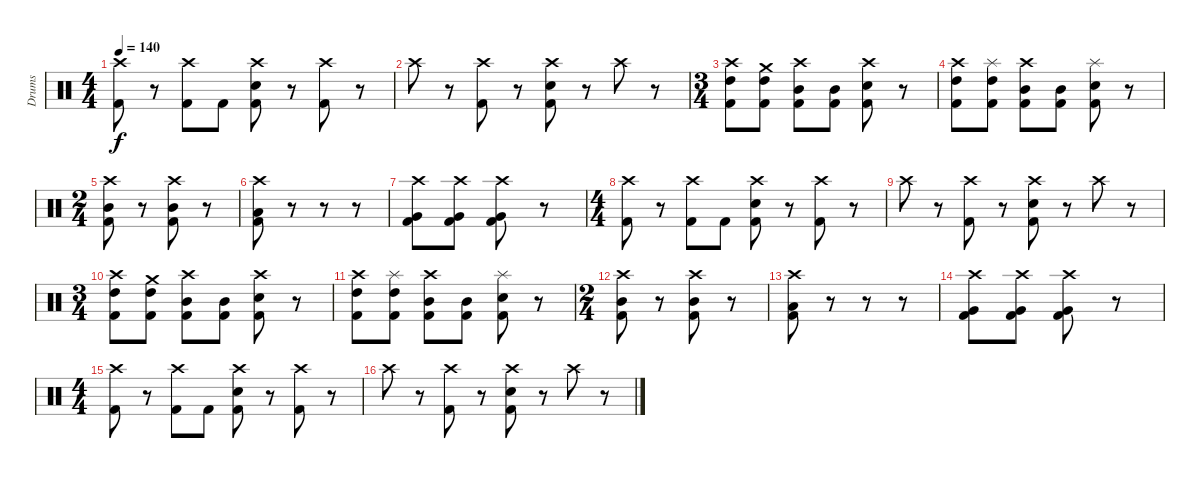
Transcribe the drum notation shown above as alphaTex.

\track ("Drums" "Drums") {instrument percussion}
\staff {score}
\articulation defaults
\ts (4 4)
\tempo 140
\clef neutral
\ks c
("Crash high (hit)" "Kick (hit) 2").8{dy f} r.8 ("Crash high (hit)" "Kick (hit) 2").8 "Kick (hit) 2".8 ("Crash high (hit)" "Snare (hit) 2" "Kick (hit) 2").8 r.8 ("Crash high (hit)" "Kick (hit) 2").8 r.8 |
"Crash high (hit)".8 r.8 ("Crash high (hit)" "Kick (hit) 2").8 r.8 ("Crash high (hit)" "Snare (hit) 2" "Kick (hit) 2").8 r.8 "Crash high (hit)".8 r.8 |
\ts (3 4)
("Crash high (hit)" "High Tom (hit)" "Kick (hit) 2").8 ("Crash medium (hit)" "High Tom (hit)" "Kick (hit) 2").8 ("Crash high (hit)" "Mid Tom (hit)" "Kick (hit) 2").8 ("Mid Tom (hit)" "Kick (hit) 2").8 ("Crash high (hit)" "Snare (hit) 2" "Kick (hit) 2").8 r.8 |
("Crash high (hit)" "High Tom (hit)" "Kick (hit) 2").8 ("Splash (hit)" "High Tom (hit)" "Kick (hit) 2").8 ("Crash high (hit)" "Mid Tom (hit)" "Kick (hit) 2").8 ("Mid Tom (hit)" "Kick (hit) 2").8 ("Splash (hit)" "Snare (hit) 2" "Kick (hit) 2").8 r.8 |
\ts (2 4)
("Crash high (hit)" "Mid Tom (hit)" "Kick (hit) 2").8 r.8 ("Crash high (hit)" "Mid Tom (hit)" "Kick (hit) 2").8 r.8 |
("Crash high (hit)" "Low Tom (hit)" "Kick (hit) 2").8 r.8 r.8 r.8 |
("Crash high (hit)" "Very Low Tom (hit)" "Kick (hit) 2").8 ("Crash high (hit)" "Very Low Tom (hit)" "Kick (hit) 2").8 ("Crash high (hit)" "Very Low Tom (hit)" "Kick (hit) 2").8 r.8 |
\ts (4 4)
("Crash high (hit)" "Kick (hit) 2").8 r.8 ("Crash high (hit)" "Kick (hit) 2").8 "Kick (hit) 2".8 ("Crash high (hit)" "Snare (hit) 2" "Kick (hit) 2").8 r.8 ("Crash high (hit)" "Kick (hit) 2").8 r.8 |
"Crash high (hit)".8 r.8 ("Crash high (hit)" "Kick (hit) 2").8 r.8 ("Crash high (hit)" "Snare (hit) 2" "Kick (hit) 2").8 r.8 "Crash high (hit)".8 r.8 |
\ts (3 4)
("Crash high (hit)" "High Tom (hit)" "Kick (hit) 2").8 ("Crash medium (hit)" "High Tom (hit)" "Kick (hit) 2").8 ("Crash high (hit)" "Mid Tom (hit)" "Kick (hit) 2").8 ("Mid Tom (hit)" "Kick (hit) 2").8 ("Crash high (hit)" "Snare (hit) 2" "Kick (hit) 2").8 r.8 |
("Crash high (hit)" "High Tom (hit)" "Kick (hit) 2").8 ("Splash (hit)" "High Tom (hit)" "Kick (hit) 2").8 ("Crash high (hit)" "Mid Tom (hit)" "Kick (hit) 2").8 ("Mid Tom (hit)" "Kick (hit) 2").8 ("Splash (hit)" "Snare (hit) 2" "Kick (hit) 2").8 r.8 |
\ts (2 4)
("Crash high (hit)" "Mid Tom (hit)" "Kick (hit) 2").8 r.8 ("Crash high (hit)" "Mid Tom (hit)" "Kick (hit) 2").8 r.8 |
("Crash high (hit)" "Low Tom (hit)" "Kick (hit) 2").8 r.8 r.8 r.8 |
("Crash high (hit)" "Very Low Tom (hit)" "Kick (hit) 2").8 ("Crash high (hit)" "Very Low Tom (hit)" "Kick (hit) 2").8 ("Crash high (hit)" "Very Low Tom (hit)" "Kick (hit) 2").8 r.8 |
\ts (4 4)
("Crash high (hit)" "Kick (hit) 2").8 r.8 ("Crash high (hit)" "Kick (hit) 2").8 "Kick (hit) 2".8 ("Crash high (hit)" "Snare (hit) 2" "Kick (hit) 2").8 r.8 ("Crash high (hit)" "Kick (hit) 2").8 r.8 |
"Crash high (hit)".8 r.8 ("Crash high (hit)" "Kick (hit) 2").8 r.8 ("Crash high (hit)" "Snare (hit) 2" "Kick (hit) 2").8 r.8 "Crash high (hit)".8 r.8
